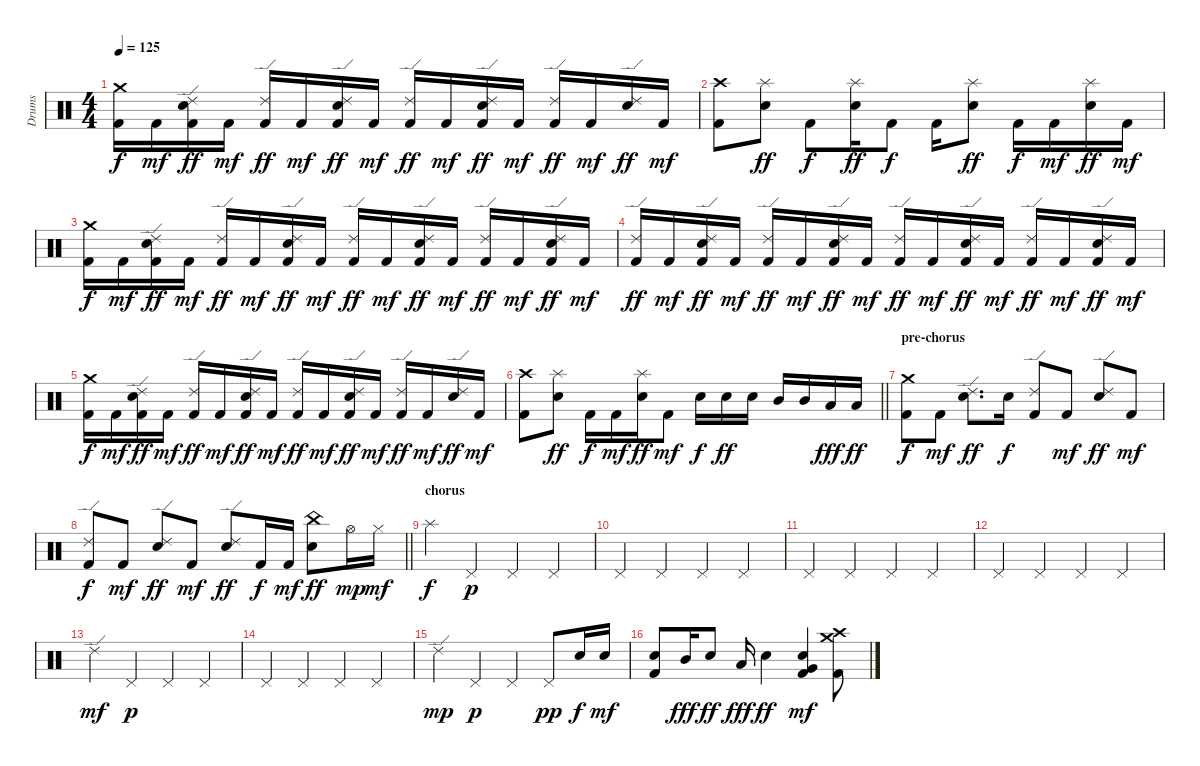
\track ("Drums" "Drums") {instrument percussion}
\staff {score}
\articulation defaults
\ts (4 4)
\tempo 125
\clef neutral
\ks c
("Crash medium (hit)" "Kick (hit) 2").16{dy f} "Kick (hit) 2".16{dy mf} ("Ride (edge) 2" "Snare (hit) 2" "Kick (hit) 2").16{dy ff} "Kick (hit) 2".16{dy mf} ("Ride (edge) 2" "Kick (hit) 2").16{dy ff} "Kick (hit) 2".16{dy mf} ("Ride (edge) 2" "Snare (hit) 2" "Kick (hit) 2").16{dy ff} "Kick (hit) 2".16{dy mf} ("Ride (edge) 2" "Kick (hit) 2").16{dy ff} "Kick (hit) 2".16{dy mf} ("Ride (edge) 2" "Snare (hit) 2" "Kick (hit) 2").16{dy ff} "Kick (hit) 2".16{dy mf} ("Ride (edge) 2" "Kick (hit) 2").16{dy ff} "Kick (hit) 2".16{dy mf} ("Ride (edge) 2" "Snare (hit) 2").16{dy ff} "Kick (hit) 2".16{dy mf} |
("Crash high (hit)" "Kick (hit) 2").8 ("Splash (hit)" "Snare (hit) 2").8{dy ff} "Kick (hit) 2".8{dy f} ("Splash (hit)" "Snare (hit) 2").16{dy ff} "Kick (hit) 2".8{dy f} "Kick (hit) 2".16 ("Splash (hit)" "Snare (hit) 2").8{dy ff} "Kick (hit) 2".16{dy f} "Kick (hit) 2".16{dy mf} ("Splash (hit)" "Snare (hit) 2").16{dy ff} "Kick (hit) 2".16{dy mf} |
("Crash medium (hit)" "Kick (hit) 2").16{dy f} "Kick (hit) 2".16{dy mf} ("Ride (edge) 2" "Snare (hit) 2" "Kick (hit) 2").16{dy ff} "Kick (hit) 2".16{dy mf} ("Ride (edge) 2" "Kick (hit) 2").16{dy ff} "Kick (hit) 2".16{dy mf} ("Ride (edge) 2" "Snare (hit) 2" "Kick (hit) 2").16{dy ff} "Kick (hit) 2".16{dy mf} ("Ride (edge) 2" "Kick (hit) 2").16{dy ff} "Kick (hit) 2".16{dy mf} ("Ride (edge) 2" "Snare (hit) 2" "Kick (hit) 2").16{dy ff} "Kick (hit) 2".16{dy mf} ("Ride (edge) 2" "Kick (hit) 2").16{dy ff} "Kick (hit) 2".16{dy mf} ("Ride (edge) 2" "Snare (hit) 2" "Kick (hit) 2").16{dy ff} "Kick (hit) 2".16{dy mf} |
("Ride (edge) 2" "Kick (hit) 2").16{dy ff} "Kick (hit) 2".16{dy mf} ("Ride (edge) 2" "Snare (hit) 2" "Kick (hit) 2").16{dy ff} "Kick (hit) 2".16{dy mf} ("Ride (edge) 2" "Kick (hit) 2").16{dy ff} "Kick (hit) 2".16{dy mf} ("Ride (edge) 2" "Snare (hit) 2" "Kick (hit) 2").16{dy ff} "Kick (hit) 2".16{dy mf} ("Ride (edge) 2" "Kick (hit) 2").16{dy ff} "Kick (hit) 2".16{dy mf} ("Ride (edge) 2" "Snare (hit) 2" "Kick (hit) 2").16{dy ff} "Kick (hit) 2".16{dy mf} ("Ride (edge) 2" "Kick (hit) 2").16{dy ff} "Kick (hit) 2".16{dy mf} ("Ride (edge) 2" "Snare (hit) 2" "Kick (hit) 2").16{dy ff} "Kick (hit) 2".16{dy mf} |
("Crash medium (hit)" "Kick (hit) 2").16{dy f} "Kick (hit) 2".16{dy mf} ("Ride (edge) 2" "Snare (hit) 2" "Kick (hit) 2").16{dy ff} "Kick (hit) 2".16{dy mf} ("Ride (edge) 2" "Kick (hit) 2").16{dy ff} "Kick (hit) 2".16{dy mf} ("Ride (edge) 2" "Snare (hit) 2" "Kick (hit) 2").16{dy ff} "Kick (hit) 2".16{dy mf} ("Ride (edge) 2" "Kick (hit) 2").16{dy ff} "Kick (hit) 2".16{dy mf} ("Ride (edge) 2" "Snare (hit) 2" "Kick (hit) 2").16{dy ff} "Kick (hit) 2".16{dy mf} ("Ride (edge) 2" "Kick (hit) 2").16{dy ff} "Kick (hit) 2".16{dy mf} ("Ride (edge) 2" "Snare (hit) 2").16{dy ff} "Kick (hit) 2".16{dy mf} |
\barLineRight lightlight
("Crash high (hit)" "Kick (hit) 2").8 ("Splash (hit)" "Snare (hit) 2").8{dy ff} "Kick (hit) 2".16{dy f} "Kick (hit) 2".16{dy mf} ("Splash (hit)" "Snare (hit) 2").16{dy ff} "Kick (hit) 2".8{dy mf} "Snare (hit) 2".16{dy f} "Snare (hit) 2".16{dy ff} "Snare (hit) 2".16 "Mid Tom (hit)".16 "Mid Tom (hit)".16 "Low Tom (hit)".16{dy fff} "Low Tom (hit)".16{dy ff} |
\section ("" "pre-chorus")
("Crash medium (hit)" "Kick (hit) 2").8{dy f} "Kick (hit) 2".8{dy mf} ("Ride (edge) 2" "Snare (hit) 2").8{d dy ff} "Snare (hit) 2".16{dy f} ("Ride (edge) 2" "Kick (hit) 2").8 "Kick (hit) 2".8{dy mf} ("Ride (edge) 2" "Snare (hit) 2").8{dy ff} "Kick (hit) 2".8{dy mf} |
\barLineRight lightlight
("Ride (edge) 2" "Kick (hit) 2").8{dy f} "Kick (hit) 2".8{dy mf} ("Ride (edge) 2" "Snare (hit) 2").8{dy ff} "Kick (hit) 2".8{dy mf} ("Ride (edge) 2" "Snare (hit) 2").8{dy ff} "Kick (hit) 2".16{dy f} "Kick (hit) 2".16{dy mf} ("China (hit)" "Snare (hit) 2").8{dy ff} "Hi-Hat (open)".16{dy mp} "Hi-Hat (closed)".16{dy mf} |
\section ("" "chorus")
"Splash (hit)".4{dy f} "Pedal Hi-Hat (hit)".4{dy p} "Pedal Hi-Hat (hit)".4 "Pedal Hi-Hat (hit)".4 |
"Pedal Hi-Hat (hit)".4 "Pedal Hi-Hat (hit)".4 "Pedal Hi-Hat (hit)".4 "Pedal Hi-Hat (hit)".4 |
"Pedal Hi-Hat (hit)".4 "Pedal Hi-Hat (hit)".4 "Pedal Hi-Hat (hit)".4 "Pedal Hi-Hat (hit)".4 |
"Pedal Hi-Hat (hit)".4 "Pedal Hi-Hat (hit)".4 "Pedal Hi-Hat (hit)".4 "Pedal Hi-Hat (hit)".4 |
"Ride (edge) 2".4{dy mf} "Pedal Hi-Hat (hit)".4{dy p} "Pedal Hi-Hat (hit)".4 "Pedal Hi-Hat (hit)".4 |
"Pedal Hi-Hat (hit)".4 "Pedal Hi-Hat (hit)".4 "Pedal Hi-Hat (hit)".4 "Pedal Hi-Hat (hit)".4 |
"Ride (edge) 2".4{dy mp} "Pedal Hi-Hat (hit)".4{dy p} "Pedal Hi-Hat (hit)".4 "Pedal Hi-Hat (hit)".8{dy pp} "Snare (hit) 2".16{dy f} "Snare (hit) 2".16{dy mf} |
("Snare (hit) 2" "Kick (hit) 2").8 "Mid Tom (hit)".16{dy fff} "Snare (hit) 2".8{dy ff} "Low Tom (hit)".16{dy fff} "Snare (hit) 2".4{dy ff} ("Very Low Tom (hit)" "Snare (hit) 2" "Kick (hit) 2").4{dy mf} ("Crash medium (hit)" "Crash high (hit)" "Kick (hit) 2").8
